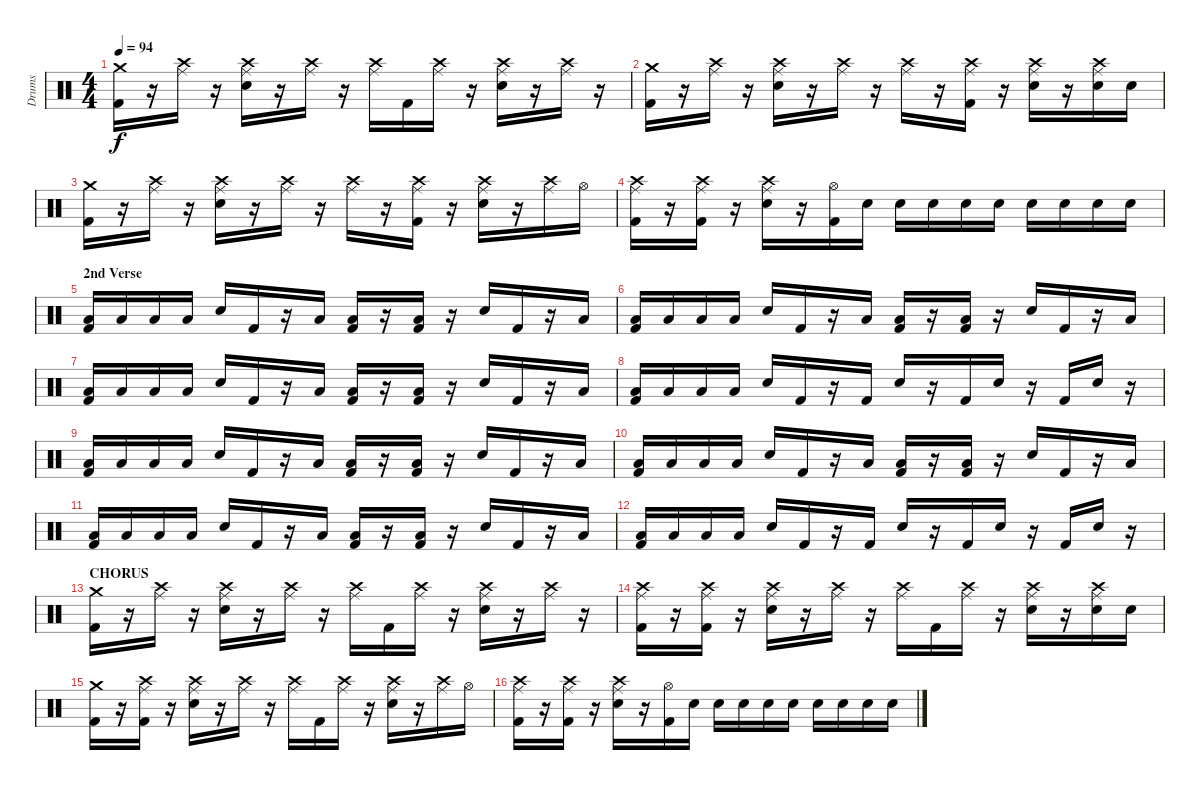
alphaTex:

\track ("Drums" "Drums") {instrument percussion}
\staff {score}
\articulation defaults
\ts (4 4)
\tempo 94
\clef neutral
\ks c
("Crash medium (hit)" "Kick (hit) 2").16{dy f} r.16 ("Ride (middle)" "Crash high (hit)").16 r.16 ("Ride (middle)" "Crash high (hit)" "Electric Snare (hit)").16 r.16 ("Ride (middle)" "Crash high (hit)").16 r.16 ("Ride (middle)" "Crash high (hit)").16 "Kick (hit) 2".16 ("Ride (middle)" "Crash high (hit)").16 r.16 ("Ride (middle)" "Crash high (hit)" "Electric Snare (hit)").16 r.16 ("Ride (middle)" "Crash high (hit)").16 r.16 |
("Crash medium (hit)" "Kick (hit) 2").16 r.16 ("Ride (middle)" "Crash high (hit)").16 r.16 ("Ride (middle)" "Crash high (hit)" "Electric Snare (hit)").16 r.16 ("Ride (middle)" "Crash high (hit)").16 r.16 ("Ride (middle)" "Crash high (hit)").16 r.16 ("Ride (middle)" "Crash high (hit)" "Kick (hit) 2").16 r.16 ("Ride (middle)" "Crash high (hit)" "Electric Snare (hit)").16 r.16 ("Ride (middle)" "Crash high (hit)" "Electric Snare (hit)").16 "Electric Snare (hit)".16 |
("Crash medium (hit)" "Kick (hit) 2").16 r.16 ("Ride (middle)" "Crash high (hit)").16 r.16 ("Ride (middle)" "Crash high (hit)" "Electric Snare (hit)").16 r.16 ("Ride (middle)" "Crash high (hit)").16 r.16 ("Ride (middle)" "Crash high (hit)").16 r.16 ("Ride (middle)" "Crash high (hit)" "Kick (hit) 2").16 r.16 ("Ride (middle)" "Crash high (hit)" "Electric Snare (hit)").16 r.16 ("Ride (middle)" "Crash high (hit)").16 "Hi-Hat (open)".16 |
("Ride (middle)" "Crash high (hit)" "Kick (hit) 2").16 r.16 ("Ride (middle)" "Crash high (hit)" "Kick (hit) 2").16 r.16 ("Ride (middle)" "Crash high (hit)" "Electric Snare (hit)").16 r.16 ("Hi-Hat (open)" "Kick (hit) 2").16 "Electric Snare (hit)".16 "Electric Snare (hit)".16 "Electric Snare (hit)".16 "Electric Snare (hit)".16 "Electric Snare (hit)".16 "Electric Snare (hit)".16 "Electric Snare (hit)".16 "Electric Snare (hit)".16 "Electric Snare (hit)".16 |
\section ("" "2nd Verse")
("Low Floor Tom (hit)" "Kick (hit) 2").16 "Low Floor Tom (hit)".16 "Low Floor Tom (hit)".16 "Low Floor Tom (hit)".16 "Electric Snare (hit)".16 "Kick (hit) 2".16 r.16 "Low Tom (hit)".16 ("Low Floor Tom (hit)" "Kick (hit) 2").16 r.16 ("Low Floor Tom (hit)" "Kick (hit) 2").16 r.16 "Electric Snare (hit)".16 "Kick (hit) 2".16 r.16 "Low Tom (hit)".16 |
("Low Floor Tom (hit)" "Kick (hit) 2").16 "Low Floor Tom (hit)".16 "Low Floor Tom (hit)".16 "Low Floor Tom (hit)".16 "Electric Snare (hit)".16 "Kick (hit) 2".16 r.16 "Low Tom (hit)".16 ("Low Floor Tom (hit)" "Kick (hit) 2").16 r.16 ("Low Floor Tom (hit)" "Kick (hit) 2").16 r.16 "Electric Snare (hit)".16 "Kick (hit) 2".16 r.16 "Low Tom (hit)".16 |
("Low Floor Tom (hit)" "Kick (hit) 2").16 "Low Floor Tom (hit)".16 "Low Floor Tom (hit)".16 "Low Floor Tom (hit)".16 "Electric Snare (hit)".16 "Kick (hit) 2".16 r.16 "Low Tom (hit)".16 ("Low Floor Tom (hit)" "Kick (hit) 2").16 r.16 ("Low Floor Tom (hit)" "Kick (hit) 2").16 r.16 "Electric Snare (hit)".16 "Kick (hit) 2".16 r.16 "Low Tom (hit)".16 |
("Low Floor Tom (hit)" "Kick (hit) 2").16 "Low Floor Tom (hit)".16 "Low Floor Tom (hit)".16 "Low Floor Tom (hit)".16 "Electric Snare (hit)".16 "Kick (hit) 2".16 r.16 "Kick (hit) 2".16 "Electric Snare (hit)".16 r.16 "Kick (hit) 2".16 "Electric Snare (hit)".16 r.16 "Kick (hit) 2".16 "Electric Snare (hit)".16 r.16 |
("Low Floor Tom (hit)" "Kick (hit) 2").16 "Low Floor Tom (hit)".16 "Low Floor Tom (hit)".16 "Low Floor Tom (hit)".16 "Electric Snare (hit)".16 "Kick (hit) 2".16 r.16 "Low Tom (hit)".16 ("Low Floor Tom (hit)" "Kick (hit) 2").16 r.16 ("Low Floor Tom (hit)" "Kick (hit) 2").16 r.16 "Electric Snare (hit)".16 "Kick (hit) 2".16 r.16 "Low Tom (hit)".16 |
("Low Floor Tom (hit)" "Kick (hit) 2").16 "Low Floor Tom (hit)".16 "Low Floor Tom (hit)".16 "Low Floor Tom (hit)".16 "Electric Snare (hit)".16 "Kick (hit) 2".16 r.16 "Low Tom (hit)".16 ("Low Floor Tom (hit)" "Kick (hit) 2").16 r.16 ("Low Floor Tom (hit)" "Kick (hit) 2").16 r.16 "Electric Snare (hit)".16 "Kick (hit) 2".16 r.16 "Low Tom (hit)".16 |
("Low Floor Tom (hit)" "Kick (hit) 2").16 "Low Floor Tom (hit)".16 "Low Floor Tom (hit)".16 "Low Floor Tom (hit)".16 "Electric Snare (hit)".16 "Kick (hit) 2".16 r.16 "Low Tom (hit)".16 ("Low Floor Tom (hit)" "Kick (hit) 2").16 r.16 ("Low Floor Tom (hit)" "Kick (hit) 2").16 r.16 "Electric Snare (hit)".16 "Kick (hit) 2".16 r.16 "Low Tom (hit)".16 |
("Low Floor Tom (hit)" "Kick (hit) 2").16 "Low Floor Tom (hit)".16 "Low Floor Tom (hit)".16 "Low Floor Tom (hit)".16 "Electric Snare (hit)".16 "Kick (hit) 2".16 r.16 "Kick (hit) 2".16 "Electric Snare (hit)".16 r.16 "Kick (hit) 2".16 "Electric Snare (hit)".16 r.16 "Kick (hit) 2".16 "Electric Snare (hit)".16 r.16 |
\section ("" "CHORUS")
("Crash medium (hit)" "Kick (hit) 2").16 r.16 ("Ride (middle)" "Crash high (hit)").16 r.16 ("Ride (middle)" "Crash high (hit)" "Electric Snare (hit)").16 r.16 ("Ride (middle)" "Crash high (hit)").16 r.16 ("Ride (middle)" "Crash high (hit)").16 "Kick (hit) 2".16 ("Ride (middle)" "Crash high (hit)").16 r.16 ("Ride (middle)" "Crash high (hit)" "Electric Snare (hit)").16 r.16 ("Ride (middle)" "Crash high (hit)").16 r.16 |
("Ride (middle)" "Crash high (hit)" "Kick (hit) 2").16 r.16 ("Ride (middle)" "Crash high (hit)" "Kick (hit) 2").16 r.16 ("Ride (middle)" "Crash high (hit)" "Electric Snare (hit)").16 r.16 ("Ride (middle)" "Crash high (hit)").16 r.16 ("Ride (middle)" "Crash high (hit)").16 "Kick (hit) 2".16 ("Ride (middle)" "Crash high (hit)").16 r.16 ("Ride (middle)" "Crash high (hit)" "Electric Snare (hit)").16 r.16 ("Ride (middle)" "Crash high (hit)" "Electric Snare (hit)").16 "Electric Snare (hit)".16 |
("Crash medium (hit)" "Kick (hit) 2").16 r.16 ("Ride (middle)" "Crash high (hit)" "Kick (hit) 2").16 r.16 ("Ride (middle)" "Crash high (hit)" "Electric Snare (hit)").16 r.16 ("Ride (middle)" "Crash high (hit)").16 r.16 ("Ride (middle)" "Crash high (hit)").16 "Kick (hit) 2".16 ("Ride (middle)" "Crash high (hit)").16 r.16 ("Ride (middle)" "Crash high (hit)" "Electric Snare (hit)").16 r.16 ("Ride (middle)" "Crash high (hit)").16 "Hi-Hat (open)".16 |
("Ride (middle)" "Crash high (hit)" "Kick (hit) 2").16 r.16 ("Ride (middle)" "Crash high (hit)" "Kick (hit) 2").16 r.16 ("Ride (middle)" "Crash high (hit)" "Electric Snare (hit)").16 r.16 ("Hi-Hat (open)" "Kick (hit) 2").16 "Electric Snare (hit)".16 "Electric Snare (hit)".16 "Electric Snare (hit)".16 "Electric Snare (hit)".16 "Electric Snare (hit)".16 "Electric Snare (hit)".16 "Electric Snare (hit)".16 "Electric Snare (hit)".16 "Electric Snare (hit)".16
